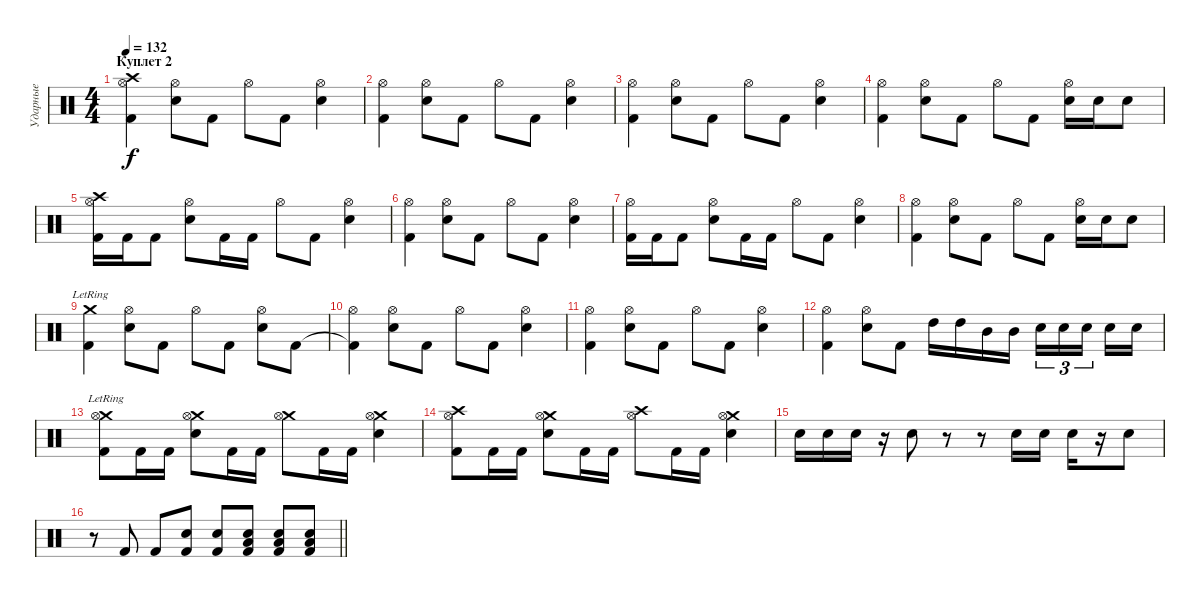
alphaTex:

\track ("Ударные" "Ударные") {instrument percussion}
\staff {score}
\articulation defaults
\ts (4 4)
\section ("" "Куплет 2")
\tempo 132
\clef neutral
\ks c
("Crash high (hit)" "Kick (hit) 2" "Hi-Hat (open)").4{dy f} ("Electric Snare (hit)" "Hi-Hat (open)").8 "Kick (hit) 2".8 "Hi-Hat (open)".8 "Kick (hit) 2".8 ("Electric Snare (hit)" "Hi-Hat (open)").4 |
("Kick (hit) 2" "Hi-Hat (open)").4 ("Electric Snare (hit)" "Hi-Hat (open)").8 "Kick (hit) 2".8 "Hi-Hat (open)".8 "Kick (hit) 2".8 ("Electric Snare (hit)" "Hi-Hat (open)").4 |
("Kick (hit) 2" "Hi-Hat (open)").4 ("Electric Snare (hit)" "Hi-Hat (open)").8 "Kick (hit) 2".8 "Hi-Hat (open)".8 "Kick (hit) 2".8 ("Electric Snare (hit)" "Hi-Hat (open)").4 |
("Kick (hit) 2" "Hi-Hat (open)").4 ("Electric Snare (hit)" "Hi-Hat (open)").8 "Kick (hit) 2".8 "Hi-Hat (open)".8 "Kick (hit) 2".8 ("Electric Snare (hit)" "Hi-Hat (open)").16 "Electric Snare (hit)".16 "Electric Snare (hit)".8 |
("Crash high (hit)" "Kick (hit) 2" "Hi-Hat (open)").16 "Kick (hit) 2".16 "Kick (hit) 2".8 ("Electric Snare (hit)" "Hi-Hat (open)").8 "Kick (hit) 2".16 "Kick (hit) 2".16 "Hi-Hat (open)".8 "Kick (hit) 2".8 ("Electric Snare (hit)" "Hi-Hat (open)").4 |
("Kick (hit) 2" "Hi-Hat (open)").4 ("Electric Snare (hit)" "Hi-Hat (open)").8 "Kick (hit) 2".8 "Hi-Hat (open)".8 "Kick (hit) 2".8 ("Electric Snare (hit)" "Hi-Hat (open)").4 |
("Kick (hit) 2" "Hi-Hat (open)").16 "Kick (hit) 2".16 "Kick (hit) 2".8 ("Electric Snare (hit)" "Hi-Hat (open)").8 "Kick (hit) 2".16 "Kick (hit) 2".16 "Hi-Hat (open)".8 "Kick (hit) 2".8 ("Electric Snare (hit)" "Hi-Hat (open)").4 |
("Kick (hit) 2" "Hi-Hat (open)").4 ("Electric Snare (hit)" "Hi-Hat (open)").8 "Kick (hit) 2".8 "Hi-Hat (open)".8 "Kick (hit) 2".8 ("Electric Snare (hit)" "Hi-Hat (open)").16 "Electric Snare (hit)".16 "Electric Snare (hit)".8 |
("Crash medium (hit)"{lr} "Kick (hit) 2").4 ("Electric Snare (hit)" "Hi-Hat (open)").8 "Kick (hit) 2".8 "Hi-Hat (open)".8 "Kick (hit) 2".8 ("Electric Snare (hit)" "Hi-Hat (open)").8 "Kick (hit) 2".8 |
("Kick (hit) 2"{t} "Hi-Hat (open)").4 ("Electric Snare (hit)" "Hi-Hat (open)").8 "Kick (hit) 2".8 "Hi-Hat (open)".8 "Kick (hit) 2".8 ("Electric Snare (hit)" "Hi-Hat (open)").4 |
("Kick (hit) 2" "Hi-Hat (open)").4 ("Electric Snare (hit)" "Hi-Hat (open)").8 "Kick (hit) 2".8 "Hi-Hat (open)".8 "Kick (hit) 2".8 ("Electric Snare (hit)" "Hi-Hat (open)").4 |
("Kick (hit) 2" "Hi-Hat (open)").4 ("Electric Snare (hit)" "Hi-Hat (open)").8 "Kick (hit) 2".8 "High Tom (hit)".16 "High Tom (hit)".16 "Mid Tom (hit)".16 "Mid Tom (hit)".16 "Electric Snare (hit)".16{tu (3 2)} "Electric Snare (hit)".16{tu (3 2)} "Electric Snare (hit)".16{tu (3 2) beam splitsecondary} "Electric Snare (hit)".16 "Electric Snare (hit)".16 |
("Crash medium (hit)"{lr} "Kick (hit) 2" "Hi-Hat (open)").8 "Kick (hit) 2".16 "Kick (hit) 2".16 ("Crash medium (hit)" "Electric Snare (hit)" "Hi-Hat (open)").8 "Kick (hit) 2".16 "Kick (hit) 2".16 ("Crash medium (hit)" "Hi-Hat (open)").8 "Kick (hit) 2".16 "Kick (hit) 2".16 ("Crash medium (hit)" "Electric Snare (hit)" "Hi-Hat (open)").4 |
("Crash high (hit)" "Kick (hit) 2" "Hi-Hat (open)").8 "Kick (hit) 2".16 "Kick (hit) 2".16 ("Crash medium (hit)" "Electric Snare (hit)" "Hi-Hat (open)").8 "Kick (hit) 2".16 "Kick (hit) 2".16 ("Crash high (hit)" "Hi-Hat (open)").8 "Kick (hit) 2".16 "Kick (hit) 2".16 ("Crash medium (hit)" "Electric Snare (hit)" "Hi-Hat (open)").4 |
"Electric Snare (hit)".16 "Electric Snare (hit)".16 "Electric Snare (hit)".16 r.16 "Electric Snare (hit)".8 r.8 r.8 "Electric Snare (hit)".16 "Electric Snare (hit)".16 "Electric Snare (hit)".16 r.16 "Electric Snare (hit)".8 |
\barLineRight lightlight
r.8 "Kick (hit) 2".8 "Kick (hit) 2".8 ("Kick (hit) 2" "Electric Snare (hit)").8 ("Kick (hit) 2" "Electric Snare (hit)").8 ("Low Tom (hit)" "Kick (hit) 2" "Electric Snare (hit)").8 ("Low Tom (hit)" "Kick (hit) 2" "Electric Snare (hit)").8 ("Low Tom (hit)" "Kick (hit) 2" "Electric Snare (hit)").8
